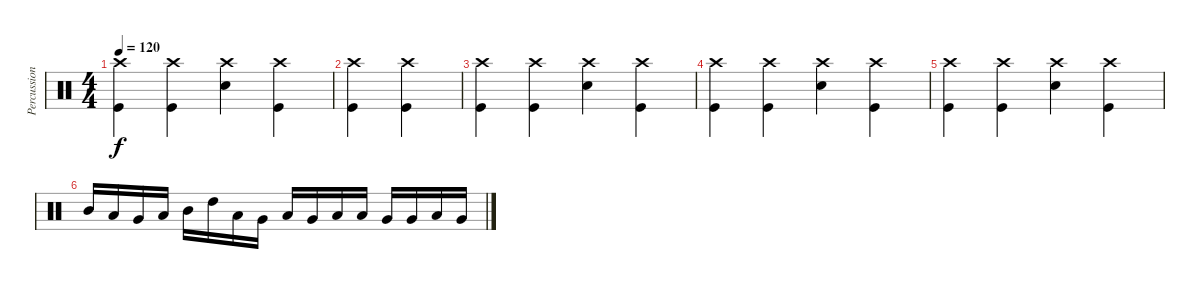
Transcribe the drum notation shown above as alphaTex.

\track ("Percussion" "Percussion") {instrument percussion}
\staff {score}
\articulation defaults
\ts (4 4)
\tempo 120
\clef neutral
\ks c
("Crash high (hit)" "Kick (hit)").4{dy f} ("Crash high (hit)" "Kick (hit)").4 ("Crash high (hit)" "Snare (hit) 2").4 ("Crash high (hit)" "Kick (hit)").4 |
("Crash high (hit)" "Kick (hit)").4 ("Crash high (hit)" "Kick (hit)").4 |
("Crash high (hit)" "Kick (hit)").4 ("Crash high (hit)" "Kick (hit)").4 ("Crash high (hit)" "Snare (hit) 2").4 ("Crash high (hit)" "Kick (hit)").4 |
("Crash high (hit)" "Kick (hit)").4 ("Crash high (hit)" "Kick (hit)").4 ("Crash high (hit)" "Snare (hit) 2").4 ("Crash high (hit)" "Kick (hit)").4 |
("Crash high (hit)" "Kick (hit)").4 ("Crash high (hit)" "Kick (hit)").4 ("Crash high (hit)" "Snare (hit) 2").4 ("Crash high (hit)" "Kick (hit)").4 |
"Mid Tom (hit)".16 "Low Tom (hit)".16 "Very Low Tom (hit)".16 "Low Floor Tom (hit)".16 "Mid Tom (hit)".16 "High Tom (hit)".16 "Low Tom (hit)".16 "Very Low Tom (hit)".16 "Low Floor Tom (hit)".16 "Very Low Tom (hit)".16 "Low Floor Tom (hit)".16 "Low Tom (hit)".16 "Very Low Tom (hit)".16 "Very Low Tom (hit)".16 "Low Tom (hit)".16 "Very Low Tom (hit)".16
